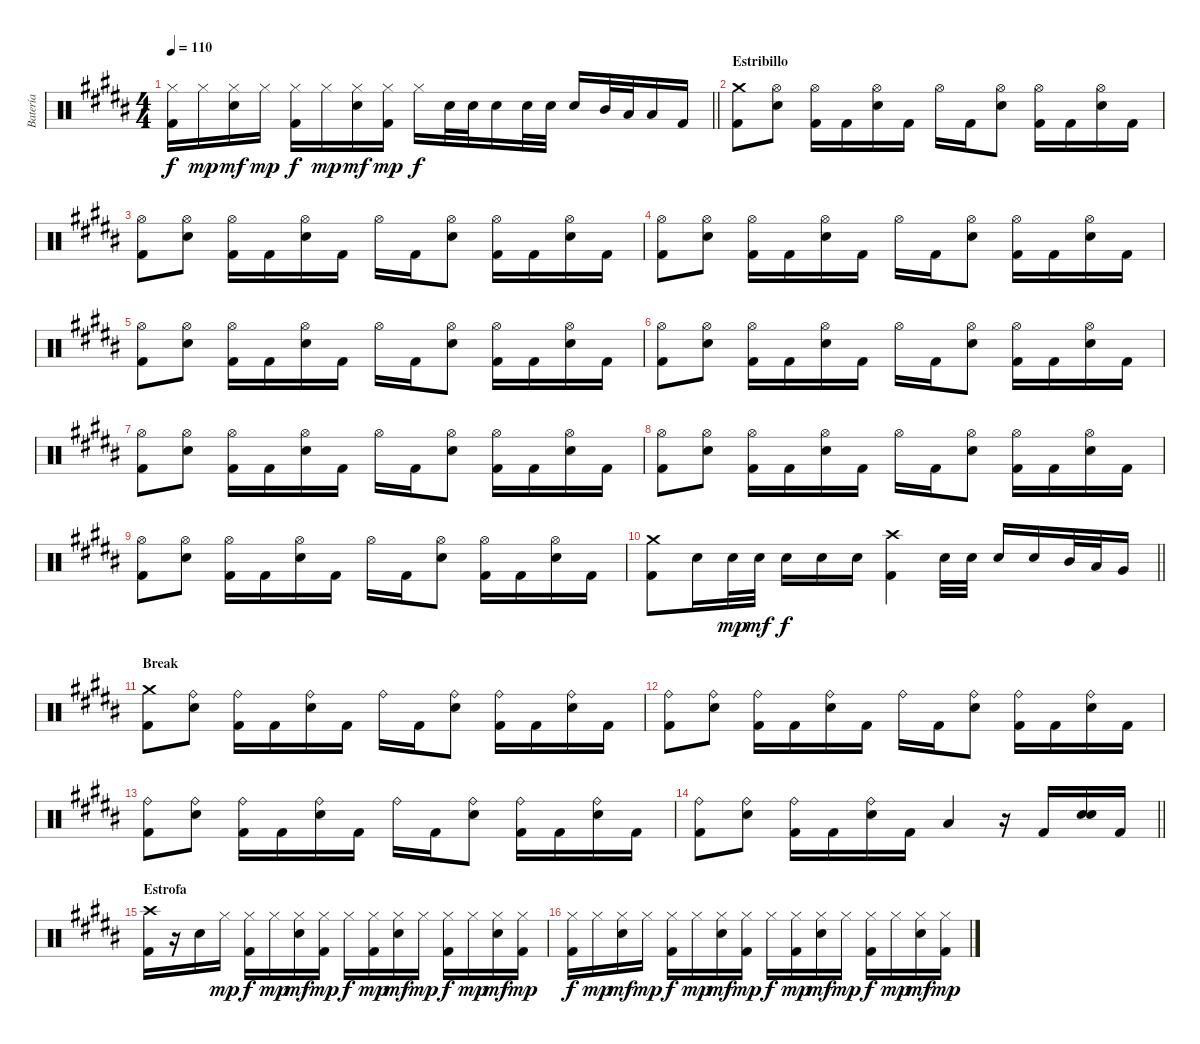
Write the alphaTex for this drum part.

\track ("Batería" "Batería") {instrument percussion}
\staff {score}
\articulation defaults
\ts (4 4)
\tempo 110
\clef neutral
\barLineRight lightlight
\ks b
("Hi-Hat (closed)" "Kick (hit) 2").16{dy f} "Hi-Hat (closed)".16{dy mp} ("Hi-Hat (closed)" "Electric Snare (hit)").16{dy mf} "Hi-Hat (closed)".16{dy mp} ("Hi-Hat (closed)" "Kick (hit) 2").16{dy f} "Hi-Hat (closed)".16{dy mp} ("Hi-Hat (closed)" "Electric Snare (hit)").16{dy mf} ("Hi-Hat (closed)" "Kick (hit) 2").16{dy mp} "Hi-Hat (closed)".16{dy f} "Electric Snare (hit)".32 "Electric Snare (hit)".32 "Electric Snare (hit)".16 "Electric Snare (hit)".32 "Electric Snare (hit)".32 "Electric Snare (hit)".16 "Mid Tom (hit)".32 "Low Tom (hit)".32 "Low Floor Tom (hit)".16 "Kick (hit) 2".16 |
\section ("" "Estribillo")
("Crash medium (hit)" "Kick (hit) 2").8 ("Hi-Hat (open)" "Electric Snare (hit)").8 ("Hi-Hat (open)" "Kick (hit) 2").16 "Kick (hit) 2".16 ("Hi-Hat (open)" "Electric Snare (hit)").16 "Kick (hit) 2".16 "Hi-Hat (open)".16 "Kick (hit) 2".16 ("Hi-Hat (open)" "Electric Snare (hit)").8 ("Hi-Hat (open)" "Kick (hit) 2").16 "Kick (hit) 2".16 ("Hi-Hat (open)" "Electric Snare (hit)").16 "Kick (hit) 2".16 |
("Hi-Hat (open)" "Kick (hit) 2").8 ("Hi-Hat (open)" "Electric Snare (hit)").8 ("Hi-Hat (open)" "Kick (hit) 2").16 "Kick (hit) 2".16 ("Hi-Hat (open)" "Electric Snare (hit)").16 "Kick (hit) 2".16 "Hi-Hat (open)".16 "Kick (hit) 2".16 ("Hi-Hat (open)" "Electric Snare (hit)").8 ("Hi-Hat (open)" "Kick (hit) 2").16 "Kick (hit) 2".16 ("Hi-Hat (open)" "Electric Snare (hit)").16 "Kick (hit) 2".16 |
("Hi-Hat (open)" "Kick (hit) 2").8 ("Hi-Hat (open)" "Electric Snare (hit)").8 ("Hi-Hat (open)" "Kick (hit) 2").16 "Kick (hit) 2".16 ("Hi-Hat (open)" "Electric Snare (hit)").16 "Kick (hit) 2".16 "Hi-Hat (open)".16 "Kick (hit) 2".16 ("Hi-Hat (open)" "Electric Snare (hit)").8 ("Hi-Hat (open)" "Kick (hit) 2").16 "Kick (hit) 2".16 ("Hi-Hat (open)" "Electric Snare (hit)").16 "Kick (hit) 2".16 |
("Hi-Hat (open)" "Kick (hit) 2").8 ("Hi-Hat (open)" "Electric Snare (hit)").8 ("Hi-Hat (open)" "Kick (hit) 2").16 "Kick (hit) 2".16 ("Hi-Hat (open)" "Electric Snare (hit)").16 "Kick (hit) 2".16 "Hi-Hat (open)".16 "Kick (hit) 2".16 ("Hi-Hat (open)" "Electric Snare (hit)").8 ("Hi-Hat (open)" "Kick (hit) 2").16 "Kick (hit) 2".16 ("Hi-Hat (open)" "Electric Snare (hit)").16 "Kick (hit) 2".16 |
("Hi-Hat (open)" "Kick (hit) 2").8 ("Hi-Hat (open)" "Electric Snare (hit)").8 ("Hi-Hat (open)" "Kick (hit) 2").16 "Kick (hit) 2".16 ("Hi-Hat (open)" "Electric Snare (hit)").16 "Kick (hit) 2".16 "Hi-Hat (open)".16 "Kick (hit) 2".16 ("Hi-Hat (open)" "Electric Snare (hit)").8 ("Hi-Hat (open)" "Kick (hit) 2").16 "Kick (hit) 2".16 ("Hi-Hat (open)" "Electric Snare (hit)").16 "Kick (hit) 2".16 |
("Hi-Hat (open)" "Kick (hit) 2").8 ("Hi-Hat (open)" "Electric Snare (hit)").8 ("Hi-Hat (open)" "Kick (hit) 2").16 "Kick (hit) 2".16 ("Hi-Hat (open)" "Electric Snare (hit)").16 "Kick (hit) 2".16 "Hi-Hat (open)".16 "Kick (hit) 2".16 ("Hi-Hat (open)" "Electric Snare (hit)").8 ("Hi-Hat (open)" "Kick (hit) 2").16 "Kick (hit) 2".16 ("Hi-Hat (open)" "Electric Snare (hit)").16 "Kick (hit) 2".16 |
("Hi-Hat (open)" "Kick (hit) 2").8 ("Hi-Hat (open)" "Electric Snare (hit)").8 ("Hi-Hat (open)" "Kick (hit) 2").16 "Kick (hit) 2".16 ("Hi-Hat (open)" "Electric Snare (hit)").16 "Kick (hit) 2".16 "Hi-Hat (open)".16 "Kick (hit) 2".16 ("Hi-Hat (open)" "Electric Snare (hit)").8 ("Hi-Hat (open)" "Kick (hit) 2").16 "Kick (hit) 2".16 ("Hi-Hat (open)" "Electric Snare (hit)").16 "Kick (hit) 2".16 |
("Hi-Hat (open)" "Kick (hit) 2").8 ("Hi-Hat (open)" "Electric Snare (hit)").8 ("Hi-Hat (open)" "Kick (hit) 2").16 "Kick (hit) 2".16 ("Hi-Hat (open)" "Electric Snare (hit)").16 "Kick (hit) 2".16 "Hi-Hat (open)".16 "Kick (hit) 2".16 ("Hi-Hat (open)" "Electric Snare (hit)").8 ("Hi-Hat (open)" "Kick (hit) 2").16 "Kick (hit) 2".16 ("Hi-Hat (open)" "Electric Snare (hit)").16 "Kick (hit) 2".16 |
\barLineRight lightlight
("Crash medium (hit)" "Kick (hit) 2").8 "Electric Snare (hit)".16 "Electric Snare (hit)".32{dy mp} "Electric Snare (hit)".32{dy mf} "Electric Snare (hit)".16{dy f} "Electric Snare (hit)".16 "Electric Snare (hit)".16 ("Crash high (hit)" "Kick (hit) 2").4 "Electric Snare (hit)".32 "Electric Snare (hit)".32 "Electric Snare (hit)".16 "Electric Snare (hit)".16 "Mid Tom (hit)".32 "Low Tom (hit)".32 "Very Low Tom (hit)".16 |
\section ("" "Break")
("Crash medium (hit)" "Kick (hit) 2").8 ("Ride (bell)" "Electric Snare (hit)").8 ("Ride (bell)" "Kick (hit) 2").16 "Kick (hit) 2".16 ("Ride (bell)" "Electric Snare (hit)").16 "Kick (hit) 2".16 "Ride (bell)".16 "Kick (hit) 2".16 ("Ride (bell)" "Electric Snare (hit)").8 ("Ride (bell)" "Kick (hit) 2").16 "Kick (hit) 2".16 ("Ride (bell)" "Electric Snare (hit)").16 "Kick (hit) 2".16 |
("Ride (bell)" "Kick (hit) 2").8 ("Ride (bell)" "Electric Snare (hit)").8 ("Ride (bell)" "Kick (hit) 2").16 "Kick (hit) 2".16 ("Ride (bell)" "Electric Snare (hit)").16 "Kick (hit) 2".16 "Ride (bell)".16 "Kick (hit) 2".16 ("Ride (bell)" "Electric Snare (hit)").8 ("Ride (bell)" "Kick (hit) 2").16 "Kick (hit) 2".16 ("Ride (bell)" "Electric Snare (hit)").16 "Kick (hit) 2".16 |
("Ride (bell)" "Kick (hit) 2").8 ("Ride (bell)" "Electric Snare (hit)").8 ("Ride (bell)" "Kick (hit) 2").16 "Kick (hit) 2".16 ("Ride (bell)" "Electric Snare (hit)").16 "Kick (hit) 2".16 "Ride (bell)".16 "Kick (hit) 2".16 ("Ride (bell)" "Electric Snare (hit)").8 ("Ride (bell)" "Kick (hit) 2").16 "Kick (hit) 2".16 ("Ride (bell)" "Electric Snare (hit)").16 "Kick (hit) 2".16 |
\barLineRight lightlight
("Ride (bell)" "Kick (hit) 2").8 ("Ride (bell)" "Electric Snare (hit)").8 ("Ride (bell)" "Kick (hit) 2").16 "Kick (hit) 2".16 ("Ride (bell)" "Electric Snare (hit)").16 "Kick (hit) 2".16 "Low Floor Tom (hit)".4 r.16 "Kick (hit) 2".16 ("Electric Snare (hit)" "Electric Snare (hit)").16{bd 120} "Kick (hit) 2".16 |
\section ("" "Estrofa")
("Crash high (hit)" "Kick (hit) 2").16 r.16 "Electric Snare (hit)".16 "Hi-Hat (closed)".16{dy mp} ("Hi-Hat (closed)" "Kick (hit) 2").16{dy f} "Hi-Hat (closed)".16{dy mp} ("Hi-Hat (closed)" "Electric Snare (hit)").16{dy mf} ("Hi-Hat (closed)" "Kick (hit) 2").16{dy mp} "Hi-Hat (closed)".16{dy f} ("Hi-Hat (closed)" "Kick (hit) 2").16{dy mp} ("Hi-Hat (closed)" "Electric Snare (hit)").16{dy mf} "Hi-Hat (closed)".16{dy mp} ("Hi-Hat (closed)" "Kick (hit) 2").16{dy f} "Hi-Hat (closed)".16{dy mp} ("Hi-Hat (closed)" "Electric Snare (hit)").16{dy mf} ("Hi-Hat (closed)" "Kick (hit) 2").16{dy mp} |
("Hi-Hat (closed)" "Kick (hit) 2").16{dy f} "Hi-Hat (closed)".16{dy mp} ("Hi-Hat (closed)" "Electric Snare (hit)").16{dy mf} "Hi-Hat (closed)".16{dy mp} ("Hi-Hat (closed)" "Kick (hit) 2").16{dy f} "Hi-Hat (closed)".16{dy mp} ("Hi-Hat (closed)" "Electric Snare (hit)").16{dy mf} ("Hi-Hat (closed)" "Kick (hit) 2").16{dy mp} "Hi-Hat (closed)".16{dy f} ("Hi-Hat (closed)" "Kick (hit) 2").16{dy mp} ("Hi-Hat (closed)" "Electric Snare (hit)").16{dy mf} "Hi-Hat (closed)".16{dy mp} ("Hi-Hat (closed)" "Kick (hit) 2").16{dy f} "Hi-Hat (closed)".16{dy mp} ("Hi-Hat (closed)" "Electric Snare (hit)").16{dy mf} ("Hi-Hat (closed)" "Kick (hit) 2").16{dy mp}
